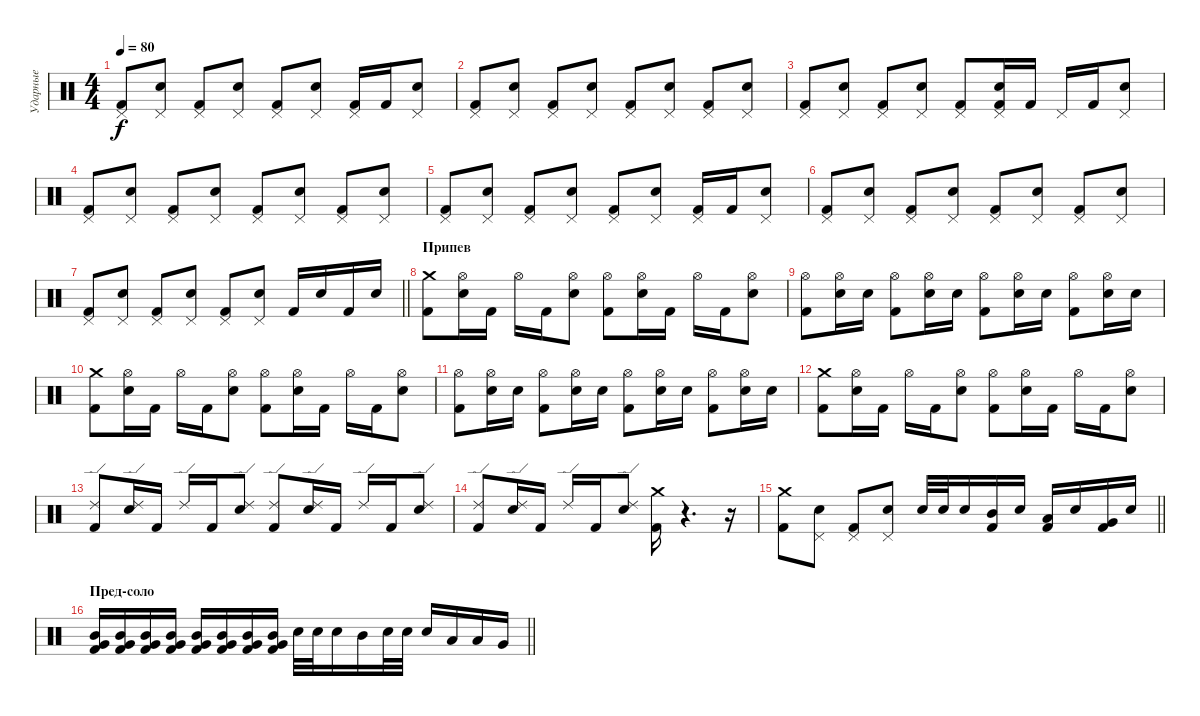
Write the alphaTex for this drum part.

\track ("Ударные" "Ударные") {instrument percussion}
\staff {score}
\articulation defaults
\ts (4 4)
\tempo 80
\clef neutral
\ks c
("Pedal Hi-Hat (hit)" "Kick (hit) 2").8{dy f} ("Pedal Hi-Hat (hit)" "Electric Snare (hit)").8 ("Pedal Hi-Hat (hit)" "Kick (hit) 2").8 ("Pedal Hi-Hat (hit)" "Electric Snare (hit)").8 ("Pedal Hi-Hat (hit)" "Kick (hit) 2").8 ("Pedal Hi-Hat (hit)" "Electric Snare (hit)").8 ("Pedal Hi-Hat (hit)" "Kick (hit) 2").16 "Kick (hit) 2".16 ("Pedal Hi-Hat (hit)" "Electric Snare (hit)").8 |
("Pedal Hi-Hat (hit)" "Kick (hit) 2").8 ("Pedal Hi-Hat (hit)" "Electric Snare (hit)").8 ("Pedal Hi-Hat (hit)" "Kick (hit) 2").8 ("Pedal Hi-Hat (hit)" "Electric Snare (hit)").8 ("Pedal Hi-Hat (hit)" "Kick (hit) 2").8 ("Pedal Hi-Hat (hit)" "Electric Snare (hit)").8 ("Pedal Hi-Hat (hit)" "Kick (hit) 2").8 ("Pedal Hi-Hat (hit)" "Electric Snare (hit)").8 |
("Pedal Hi-Hat (hit)" "Kick (hit) 2").8 ("Pedal Hi-Hat (hit)" "Electric Snare (hit)").8 ("Pedal Hi-Hat (hit)" "Kick (hit) 2").8 ("Pedal Hi-Hat (hit)" "Electric Snare (hit)").8 ("Pedal Hi-Hat (hit)" "Kick (hit) 2").8 ("Pedal Hi-Hat (hit)" "Electric Snare (hit)" "Kick (hit) 2").16 "Kick (hit) 2".16 "Pedal Hi-Hat (hit)".16 "Kick (hit) 2".16 ("Pedal Hi-Hat (hit)" "Electric Snare (hit)").8 |
("Pedal Hi-Hat (hit)" "Kick (hit) 2").8 ("Pedal Hi-Hat (hit)" "Electric Snare (hit)").8 ("Pedal Hi-Hat (hit)" "Kick (hit) 2").8 ("Pedal Hi-Hat (hit)" "Electric Snare (hit)").8 ("Pedal Hi-Hat (hit)" "Kick (hit) 2").8 ("Pedal Hi-Hat (hit)" "Electric Snare (hit)").8 ("Pedal Hi-Hat (hit)" "Kick (hit) 2").8 ("Pedal Hi-Hat (hit)" "Electric Snare (hit)").8 |
("Pedal Hi-Hat (hit)" "Kick (hit) 2").8 ("Pedal Hi-Hat (hit)" "Electric Snare (hit)").8 ("Pedal Hi-Hat (hit)" "Kick (hit) 2").8 ("Pedal Hi-Hat (hit)" "Electric Snare (hit)").8 ("Pedal Hi-Hat (hit)" "Kick (hit) 2").8 ("Pedal Hi-Hat (hit)" "Electric Snare (hit)").8 ("Pedal Hi-Hat (hit)" "Kick (hit) 2").16 "Kick (hit) 2".16 ("Pedal Hi-Hat (hit)" "Electric Snare (hit)").8 |
("Pedal Hi-Hat (hit)" "Kick (hit) 2").8 ("Pedal Hi-Hat (hit)" "Electric Snare (hit)").8 ("Pedal Hi-Hat (hit)" "Kick (hit) 2").8 ("Pedal Hi-Hat (hit)" "Electric Snare (hit)").8 ("Pedal Hi-Hat (hit)" "Kick (hit) 2").8 ("Pedal Hi-Hat (hit)" "Electric Snare (hit)").8 ("Pedal Hi-Hat (hit)" "Kick (hit) 2").8 ("Pedal Hi-Hat (hit)" "Electric Snare (hit)").8 |
\barLineRight lightlight
("Pedal Hi-Hat (hit)" "Kick (hit) 2").8 ("Pedal Hi-Hat (hit)" "Electric Snare (hit)").8 ("Pedal Hi-Hat (hit)" "Kick (hit) 2").8 ("Pedal Hi-Hat (hit)" "Electric Snare (hit)").8 ("Pedal Hi-Hat (hit)" "Kick (hit) 2").8 ("Pedal Hi-Hat (hit)" "Electric Snare (hit)").8 "Kick (hit) 2".16 "Electric Snare (hit)".16 "Kick (hit) 2".16 "Electric Snare (hit)".16 |
\section ("" "Припев")
("Crash medium (hit)" "Kick (hit) 2").8 ("Hi-Hat (open)" "Electric Snare (hit)").16 "Kick (hit) 2".16 "Hi-Hat (open)".16 "Kick (hit) 2".16 ("Hi-Hat (open)" "Electric Snare (hit)").8 ("Hi-Hat (open)" "Kick (hit) 2").8 ("Hi-Hat (open)" "Electric Snare (hit)").16 "Kick (hit) 2".16 "Hi-Hat (open)".16 "Kick (hit) 2".16 ("Hi-Hat (open)" "Electric Snare (hit)").8 |
("Hi-Hat (open)" "Kick (hit) 2").8 ("Hi-Hat (open)" "Electric Snare (hit)").16 "Electric Snare (hit)".16 ("Hi-Hat (open)" "Kick (hit) 2").8 ("Hi-Hat (open)" "Electric Snare (hit)").16 "Electric Snare (hit)".16 ("Hi-Hat (open)" "Kick (hit) 2").8 ("Hi-Hat (open)" "Electric Snare (hit)").16 "Electric Snare (hit)".16 ("Hi-Hat (open)" "Kick (hit) 2").8 ("Hi-Hat (open)" "Electric Snare (hit)").16 "Electric Snare (hit)".16 |
("Crash medium (hit)" "Kick (hit) 2").8 ("Hi-Hat (open)" "Electric Snare (hit)").16 "Kick (hit) 2".16 "Hi-Hat (open)".16 "Kick (hit) 2".16 ("Hi-Hat (open)" "Electric Snare (hit)").8 ("Hi-Hat (open)" "Kick (hit) 2").8 ("Hi-Hat (open)" "Electric Snare (hit)").16 "Kick (hit) 2".16 "Hi-Hat (open)".16 "Kick (hit) 2".16 ("Hi-Hat (open)" "Electric Snare (hit)").8 |
("Hi-Hat (open)" "Kick (hit) 2").8 ("Hi-Hat (open)" "Electric Snare (hit)").16 "Electric Snare (hit)".16 ("Hi-Hat (open)" "Kick (hit) 2").8 ("Hi-Hat (open)" "Electric Snare (hit)").16 "Electric Snare (hit)".16 ("Hi-Hat (open)" "Kick (hit) 2").8 ("Hi-Hat (open)" "Electric Snare (hit)").16 "Electric Snare (hit)".16 ("Hi-Hat (open)" "Kick (hit) 2").8 ("Hi-Hat (open)" "Electric Snare (hit)").16 "Electric Snare (hit)".16 |
("Crash medium (hit)" "Kick (hit) 2").8 ("Hi-Hat (open)" "Electric Snare (hit)").16 "Kick (hit) 2".16 "Hi-Hat (open)".16 "Kick (hit) 2".16 ("Hi-Hat (open)" "Electric Snare (hit)").8 ("Hi-Hat (open)" "Kick (hit) 2").8 ("Hi-Hat (open)" "Electric Snare (hit)").16 "Kick (hit) 2".16 "Hi-Hat (open)".16 "Kick (hit) 2".16 ("Hi-Hat (open)" "Electric Snare (hit)").8 |
("Ride (edge) 2" "Kick (hit) 2").8 ("Ride (edge) 2" "Electric Snare (hit)").16 "Kick (hit) 2".16 "Ride (edge) 2".16 "Kick (hit) 2".16 ("Ride (edge) 2" "Electric Snare (hit)").8 ("Ride (edge) 2" "Kick (hit) 2").8 ("Ride (edge) 2" "Electric Snare (hit)").16 "Kick (hit) 2".16 "Ride (edge) 2".16 "Kick (hit) 2".16 ("Ride (edge) 2" "Electric Snare (hit)").8 |
("Ride (edge) 2" "Kick (hit) 2").8 ("Ride (edge) 2" "Electric Snare (hit)").16 "Kick (hit) 2".16 "Ride (edge) 2".16 "Kick (hit) 2".16 ("Ride (edge) 2" "Electric Snare (hit)").8 ("Crash medium (hit)" "Kick (hit) 2").16 r.4{d} r.16 |
\barLineRight lightlight
("Crash medium (hit)" "Kick (hit) 2").8 ("Pedal Hi-Hat (hit)" "Electric Snare (hit)").8 ("Pedal Hi-Hat (hit)" "Kick (hit) 2").8 ("Pedal Hi-Hat (hit)" "Electric Snare (hit)").8 "Electric Snare (hit)".32 "Electric Snare (hit)".32 "Electric Snare (hit)".16 ("Mid Tom (hit)" "Kick (hit) 2").16 "Electric Snare (hit)".16 ("Low Tom (hit)" "Kick (hit) 2").16 "Electric Snare (hit)".16 ("Very Low Tom (hit)" "Kick (hit) 2").16 "Electric Snare (hit)".16 |
\section ("" "Пред-соло")
\barLineRight lightlight
("Mid Tom (hit)" "Very Low Tom (hit)" "Kick (hit) 2").16{volume 0} ("Mid Tom (hit)" "Very Low Tom (hit)" "Kick (hit) 2").16{volume 13} ("Mid Tom (hit)" "Very Low Tom (hit)" "Kick (hit) 2").16 ("Mid Tom (hit)" "Very Low Tom (hit)" "Kick (hit) 2").16 ("Mid Tom (hit)" "Very Low Tom (hit)" "Kick (hit) 2").16 ("Mid Tom (hit)" "Very Low Tom (hit)" "Kick (hit) 2").16 ("Mid Tom (hit)" "Very Low Tom (hit)" "Kick (hit) 2").16 ("Mid Tom (hit)" "Very Low Tom (hit)" "Kick (hit) 2").16 "Electric Snare (hit)".32 "Electric Snare (hit)".32 "Electric Snare (hit)".16 "Mid Tom (hit)".16 "Electric Snare (hit)".32 "Electric Snare (hit)".32 "Electric Snare (hit)".16 "Low Tom (hit)".16 "Low Tom (hit)".16 "Very Low Tom (hit)".16
